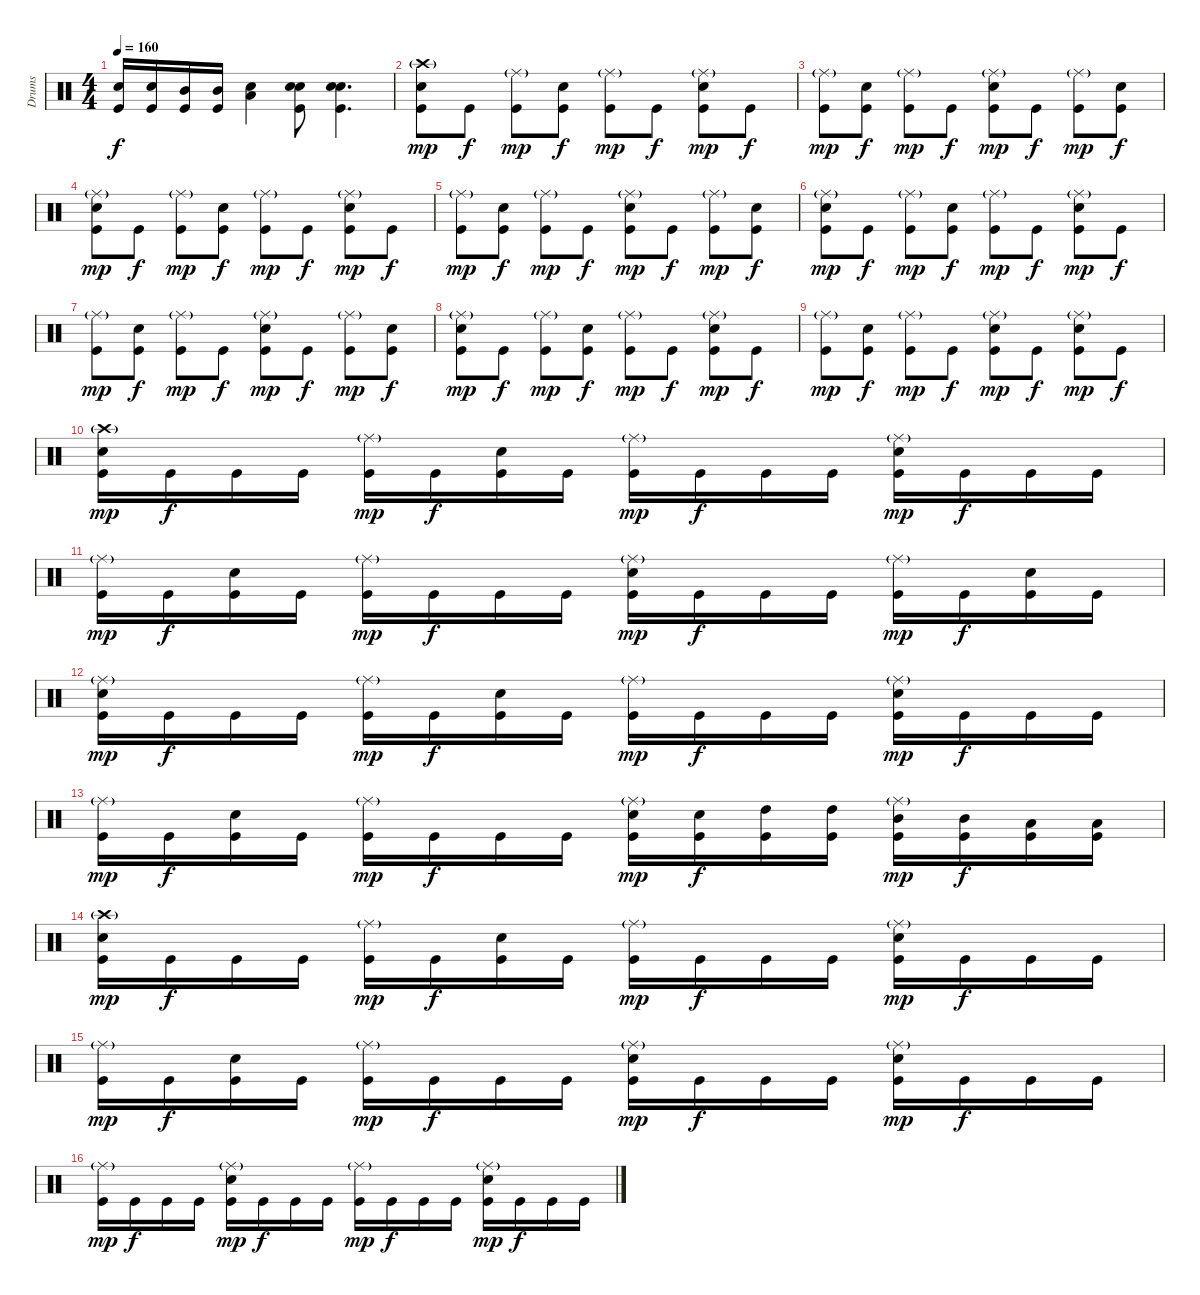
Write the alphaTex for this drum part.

\track ("Drums" "Drums") {instrument percussion}
\staff {score}
\articulation defaults
\ts (4 4)
\tempo 160
\clef neutral
\ks c
("Snare (hit) 2" "Kick (hit)").16{dy f} ("Snare (hit) 2" "Kick (hit)").16 ("Mid Tom (hit)" "Kick (hit)").16 ("Mid Tom (hit)" "Kick (hit)").16 ("Electric Snare (hit)" "Low Tom (hit)").4 ("Electric Snare (hit)" "Snare (hit) 2" "Kick (hit)").8 ("Electric Snare (hit)" "Snare (hit) 2" "Kick (hit)").4{d} |
("Crash high (hit)"{g} "Snare (hit) 2" "Kick (hit)").8{dy mp} "Kick (hit)".8{dy f} ("Ride (middle)"{g} "Kick (hit)").8{dy mp} ("Snare (hit) 2" "Kick (hit)").8{dy f} ("Ride (middle)"{g} "Kick (hit)").8{dy mp} "Kick (hit)".8{dy f} ("Ride (middle)"{g} "Snare (hit) 2" "Kick (hit)").8{dy mp} "Kick (hit)".8{dy f} |
("Ride (middle)"{g} "Kick (hit)").8{dy mp} ("Snare (hit) 2" "Kick (hit)").8{dy f} ("Ride (middle)"{g} "Kick (hit)").8{dy mp} "Kick (hit)".8{dy f} ("Ride (middle)"{g} "Snare (hit) 2" "Kick (hit)").8{dy mp} "Kick (hit)".8{dy f} ("Ride (middle)"{g} "Kick (hit)").8{dy mp} ("Snare (hit) 2" "Kick (hit)").8{dy f} |
("Ride (middle)"{g} "Snare (hit) 2" "Kick (hit)").8{dy mp} "Kick (hit)".8{dy f} ("Ride (middle)"{g} "Kick (hit)").8{dy mp} ("Snare (hit) 2" "Kick (hit)").8{dy f} ("Ride (middle)"{g} "Kick (hit)").8{dy mp} "Kick (hit)".8{dy f} ("Ride (middle)"{g} "Snare (hit) 2" "Kick (hit)").8{dy mp} "Kick (hit)".8{dy f} |
("Ride (middle)"{g} "Kick (hit)").8{dy mp} ("Snare (hit) 2" "Kick (hit)").8{dy f} ("Ride (middle)"{g} "Kick (hit)").8{dy mp} "Kick (hit)".8{dy f} ("Ride (middle)"{g} "Snare (hit) 2" "Kick (hit)").8{dy mp} "Kick (hit)".8{dy f} ("Ride (middle)"{g} "Kick (hit)").8{dy mp} ("Snare (hit) 2" "Kick (hit)").8{dy f} |
("Ride (middle)"{g} "Snare (hit) 2" "Kick (hit)").8{dy mp} "Kick (hit)".8{dy f} ("Ride (middle)"{g} "Kick (hit)").8{dy mp} ("Snare (hit) 2" "Kick (hit)").8{dy f} ("Ride (middle)"{g} "Kick (hit)").8{dy mp} "Kick (hit)".8{dy f} ("Ride (middle)"{g} "Snare (hit) 2" "Kick (hit)").8{dy mp} "Kick (hit)".8{dy f} |
("Ride (middle)"{g} "Kick (hit)").8{dy mp} ("Snare (hit) 2" "Kick (hit)").8{dy f} ("Ride (middle)"{g} "Kick (hit)").8{dy mp} "Kick (hit)".8{dy f} ("Ride (middle)"{g} "Snare (hit) 2" "Kick (hit)").8{dy mp} "Kick (hit)".8{dy f} ("Ride (middle)"{g} "Kick (hit)").8{dy mp} ("Snare (hit) 2" "Kick (hit)").8{dy f} |
("Ride (middle)"{g} "Snare (hit) 2" "Kick (hit)").8{dy mp} "Kick (hit)".8{dy f} ("Ride (middle)"{g} "Kick (hit)").8{dy mp} ("Snare (hit) 2" "Kick (hit)").8{dy f} ("Ride (middle)"{g} "Kick (hit)").8{dy mp} "Kick (hit)".8{dy f} ("Ride (middle)"{g} "Snare (hit) 2" "Kick (hit)").8{dy mp} "Kick (hit)".8{dy f} |
("Ride (middle)"{g} "Kick (hit)").8{dy mp} ("Snare (hit) 2" "Kick (hit)").8{dy f} ("Ride (middle)"{g} "Kick (hit)").8{dy mp} "Kick (hit)".8{dy f} ("Ride (middle)"{g} "Snare (hit) 2" "Kick (hit)").8{dy mp} "Kick (hit)".8{dy f} ("Ride (middle)"{g} "Snare (hit) 2" "Kick (hit)").8{dy mp} "Kick (hit)".8{dy f} |
("Crash high (hit)"{g} "Snare (hit) 2" "Kick (hit)").16{dy mp} "Kick (hit)".16{dy f} "Kick (hit)".16 "Kick (hit)".16 ("Ride (middle)"{g} "Kick (hit)").16{dy mp} "Kick (hit)".16{dy f} ("Snare (hit) 2" "Kick (hit)").16 "Kick (hit)".16 ("Ride (middle)"{g} "Kick (hit)").16{dy mp} "Kick (hit)".16{dy f} "Kick (hit)".16 "Kick (hit)".16 ("Ride (middle)"{g} "Snare (hit) 2" "Kick (hit)").16{dy mp} "Kick (hit)".16{dy f} "Kick (hit)".16 "Kick (hit)".16 |
("Ride (middle)"{g} "Kick (hit)").16{dy mp} "Kick (hit)".16{dy f} ("Snare (hit) 2" "Kick (hit)").16 "Kick (hit)".16 ("Ride (middle)"{g} "Kick (hit)").16{dy mp} "Kick (hit)".16{dy f} "Kick (hit)".16 "Kick (hit)".16 ("Ride (middle)"{g} "Snare (hit) 2" "Kick (hit)").16{dy mp} "Kick (hit)".16{dy f} "Kick (hit)".16 "Kick (hit)".16 ("Ride (middle)"{g} "Kick (hit)").16{dy mp} "Kick (hit)".16{dy f} ("Snare (hit) 2" "Kick (hit)").16 "Kick (hit)".16 |
("Ride (middle)"{g} "Snare (hit) 2" "Kick (hit)").16{dy mp} "Kick (hit)".16{dy f} "Kick (hit)".16 "Kick (hit)".16 ("Ride (middle)"{g} "Kick (hit)").16{dy mp} "Kick (hit)".16{dy f} ("Snare (hit) 2" "Kick (hit)").16 "Kick (hit)".16 ("Ride (middle)"{g} "Kick (hit)").16{dy mp} "Kick (hit)".16{dy f} "Kick (hit)".16 "Kick (hit)".16 ("Ride (middle)"{g} "Snare (hit) 2" "Kick (hit)").16{dy mp} "Kick (hit)".16{dy f} "Kick (hit)".16 "Kick (hit)".16 |
("Ride (middle)"{g} "Kick (hit)").16{dy mp} "Kick (hit)".16{dy f} ("Snare (hit) 2" "Kick (hit)").16 "Kick (hit)".16 ("Ride (middle)"{g} "Kick (hit)").16{dy mp} "Kick (hit)".16{dy f} "Kick (hit)".16 "Kick (hit)".16 ("Ride (middle)"{g} "Snare (hit) 2" "Kick (hit)").16{dy mp} ("Snare (hit) 2" "Kick (hit)").16{dy f} ("High Tom (hit)" "Kick (hit)").16 ("High Tom (hit)" "Kick (hit)").16 ("Ride (middle)"{g} "Mid Tom (hit)" "Kick (hit)").16{dy mp} ("Mid Tom (hit)" "Kick (hit)").16{dy f} ("Low Tom (hit)" "Kick (hit)").16 ("Low Tom (hit)" "Kick (hit)").16 |
("Crash high (hit)"{g} "Snare (hit) 2" "Kick (hit)").16{dy mp} "Kick (hit)".16{dy f} "Kick (hit)".16 "Kick (hit)".16 ("Ride (middle)"{g} "Kick (hit)").16{dy mp} "Kick (hit)".16{dy f} ("Snare (hit) 2" "Kick (hit)").16 "Kick (hit)".16 ("Ride (middle)"{g} "Kick (hit)").16{dy mp} "Kick (hit)".16{dy f} "Kick (hit)".16 "Kick (hit)".16 ("Ride (middle)"{g} "Snare (hit) 2" "Kick (hit)").16{dy mp} "Kick (hit)".16{dy f} "Kick (hit)".16 "Kick (hit)".16 |
("Ride (middle)"{g} "Kick (hit)").16{dy mp} "Kick (hit)".16{dy f} ("Snare (hit) 2" "Kick (hit)").16 "Kick (hit)".16 ("Ride (middle)"{g} "Kick (hit)").16{dy mp} "Kick (hit)".16{dy f} "Kick (hit)".16 "Kick (hit)".16 ("Ride (middle)"{g} "Snare (hit) 2" "Kick (hit)").16{dy mp} "Kick (hit)".16{dy f} "Kick (hit)".16 "Kick (hit)".16 ("Ride (middle)"{g} "Snare (hit) 2" "Kick (hit)").16{dy mp} "Kick (hit)".16{dy f} "Kick (hit)".16 "Kick (hit)".16 |
("Ride (middle)"{g} "Kick (hit)").16{dy mp} "Kick (hit)".16{dy f} "Kick (hit)".16 "Kick (hit)".16 ("Ride (middle)"{g} "Snare (hit) 2" "Kick (hit)").16{dy mp} "Kick (hit)".16{dy f} "Kick (hit)".16 "Kick (hit)".16 ("Ride (middle)"{g} "Kick (hit)").16{dy mp} "Kick (hit)".16{dy f} "Kick (hit)".16 "Kick (hit)".16 ("Ride (middle)"{g} "Snare (hit) 2" "Kick (hit)").16{dy mp} "Kick (hit)".16{dy f} "Kick (hit)".16 "Kick (hit)".16
